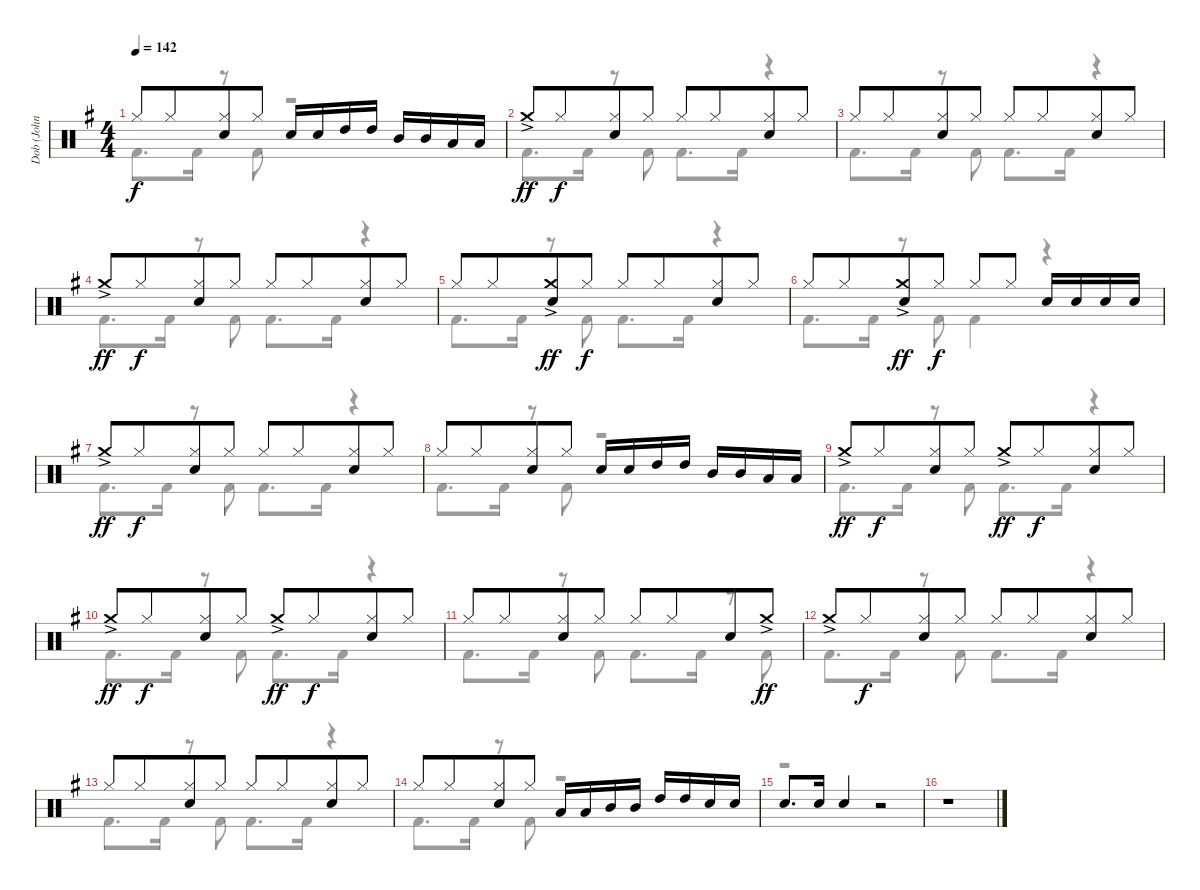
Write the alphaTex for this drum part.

\track ("Dob (John O'Reilly)" "Dob (John ") {instrument percussion}
\staff {score}
\articulation defaults
\voice
\ts (4 4)
\tempo 142
\clef neutral
\ks g "Hi-Hat (closed)".8{dy f} "Hi-Hat (closed)".8{beam merge}
("Hi-Hat (closed)" "Electric Snare (hit)").8 "Hi-Hat (closed)".8 "Electric Snare (hit)".16 "Electric Snare (hit)".16 "High Tom (hit)".16 "High Tom (hit)".16 "Mid Tom (hit)".16 "Mid Tom (hit)".16 "Low Tom (hit)".16 "Low Tom (hit)".16 |
"Crash medium (hit)"{ac}.8{dy ff} "Hi-Hat (closed)".8{dy f beam merge} ("Hi-Hat (closed)" "Electric Snare (hit)").8 "Hi-Hat (closed)".8 "Hi-Hat (closed)".8 "Hi-Hat (closed)".8{beam merge} ("Hi-Hat (closed)" "Electric Snare (hit)").8 "Hi-Hat (closed)".8 |
"Hi-Hat (closed)".8 "Hi-Hat (closed)".8{beam merge} ("Hi-Hat (closed)" "Electric Snare (hit)").8 "Hi-Hat (closed)".8 "Hi-Hat (closed)".8 "Hi-Hat (closed)".8{beam merge} ("Hi-Hat (closed)" "Electric Snare (hit)").8 "Hi-Hat (closed)".8 |
"Crash medium (hit)"{ac}.8{dy ff} "Hi-Hat (closed)".8{dy f beam merge} ("Hi-Hat (closed)" "Electric Snare (hit)").8 "Hi-Hat (closed)".8 "Hi-Hat (closed)".8 "Hi-Hat (closed)".8{beam merge} ("Hi-Hat (closed)" "Electric Snare (hit)").8 "Hi-Hat (closed)".8 |
"Hi-Hat (closed)".8 "Hi-Hat (closed)".8{beam merge} ("Crash medium (hit)"{ac} "Electric Snare (hit)").8{dy ff} "Hi-Hat (closed)".8{dy f} "Hi-Hat (closed)".8 "Hi-Hat (closed)".8{beam merge} ("Hi-Hat (closed)" "Electric Snare (hit)").8 "Hi-Hat (closed)".8 |
"Hi-Hat (closed)".8 "Hi-Hat (closed)".8{beam merge} ("Crash medium (hit)"{ac} "Electric Snare (hit)").8{dy ff} "Hi-Hat (closed)".8{dy f} "Hi-Hat (closed)".8 "Hi-Hat (closed)".8 "Electric Snare (hit)".16 "Electric Snare (hit)".16 "Electric Snare (hit)".16 "Electric Snare (hit)".16 |
"Crash medium (hit)"{ac}.8{dy ff} "Hi-Hat (closed)".8{dy f beam merge} ("Hi-Hat (closed)" "Electric Snare (hit)").8 "Hi-Hat (closed)".8 "Hi-Hat (closed)".8 "Hi-Hat (closed)".8{beam merge} ("Hi-Hat (closed)" "Electric Snare (hit)").8 "Hi-Hat (closed)".8 |
"Hi-Hat (closed)".8 "Hi-Hat (closed)".8{beam merge} ("Hi-Hat (closed)" "Electric Snare (hit)").8 "Hi-Hat (closed)".8 "Electric Snare (hit)".16 "Electric Snare (hit)".16 "High Tom (hit)".16 "High Tom (hit)".16 "Mid Tom (hit)".16 "Mid Tom (hit)".16 "Low Tom (hit)".16 "Low Tom (hit)".16 |
"Crash medium (hit)"{ac}.8{dy ff} "Hi-Hat (closed)".8{dy f beam merge} ("Hi-Hat (closed)" "Electric Snare (hit)").8 "Hi-Hat (closed)".8 "Crash medium (hit)"{ac}.8{dy ff} "Hi-Hat (closed)".8{dy f beam merge} ("Hi-Hat (closed)" "Electric Snare (hit)").8 "Hi-Hat (closed)".8 |
"Crash medium (hit)"{ac}.8{dy ff} "Hi-Hat (closed)".8{dy f beam merge} ("Hi-Hat (closed)" "Electric Snare (hit)").8 "Hi-Hat (closed)".8 "Crash medium (hit)"{ac}.8{dy ff} "Hi-Hat (closed)".8{dy f beam merge} ("Hi-Hat (closed)" "Electric Snare (hit)").8 "Hi-Hat (closed)".8 |
"Hi-Hat (closed)".8 "Hi-Hat (closed)".8{beam merge} ("Hi-Hat (closed)" "Electric Snare (hit)").8 "Hi-Hat (closed)".8 "Hi-Hat (closed)".8 "Hi-Hat (closed)".8{beam merge} "Electric Snare (hit)".8 "Crash medium (hit)"{ac}.8{dy ff} |
"Crash medium (hit)"{ac}.8 "Hi-Hat (closed)".8{dy f beam merge} ("Hi-Hat (closed)" "Electric Snare (hit)").8 "Hi-Hat (closed)".8 "Hi-Hat (closed)".8 "Hi-Hat (closed)".8{beam merge} ("Hi-Hat (closed)" "Electric Snare (hit)").8 "Hi-Hat (closed)".8 |
"Hi-Hat (closed)".8 "Hi-Hat (closed)".8{beam merge} ("Hi-Hat (closed)" "Electric Snare (hit)").8 "Hi-Hat (closed)".8 "Hi-Hat (closed)".8 "Hi-Hat (closed)".8{beam merge} ("Hi-Hat (closed)" "Electric Snare (hit)").8 "Hi-Hat (closed)".8 |
"Hi-Hat (closed)".8 "Hi-Hat (closed)".8{beam merge} ("Hi-Hat (closed)" "Electric Snare (hit)").8 "Hi-Hat (closed)".8 "Low Tom (hit)".16 "Low Tom (hit)".16 "Mid Tom (hit)".16 "Mid Tom (hit)".16 "High Tom (hit)".16 "High Tom (hit)".16 "Electric Snare (hit)".16 "Electric Snare (hit)".16 |
"Electric Snare (hit)".8{d} "Electric Snare (hit)".16 "Electric Snare (hit)".4 r.2 |
r.1
\voice
\clef neutral
\ottava regular
\simile none
\ks g "Kick (hit) 2".8{d dy f} "Kick (hit) 2".16
r.8 "Kick (hit) 2".8 r.2 |
"Kick (hit) 2".8{d} "Kick (hit) 2".16 r.8 "Kick (hit) 2".8 "Kick (hit) 2".8{d} "Kick (hit) 2".16 r.4 |
"Kick (hit) 2".8{d} "Kick (hit) 2".16 r.8 "Kick (hit) 2".8 "Kick (hit) 2".8{d} "Kick (hit) 2".16 r.4 |
"Kick (hit) 2".8{d} "Kick (hit) 2".16 r.8 "Kick (hit) 2".8 "Kick (hit) 2".8{d} "Kick (hit) 2".16 r.4 |
"Kick (hit) 2".8{d} "Kick (hit) 2".16 r.8 "Kick (hit) 2".8 "Kick (hit) 2".8{d} "Kick (hit) 2".16 r.4 |
"Kick (hit) 2".8{d} "Kick (hit) 2".16 r.8 "Kick (hit) 2".8 "Kick (hit) 2".4 r.4 |
"Kick (hit) 2".8{d} "Kick (hit) 2".16 r.8 "Kick (hit) 2".8 "Kick (hit) 2".8{d} "Kick (hit) 2".16 r.4 |
"Kick (hit) 2".8{d} "Kick (hit) 2".16 r.8 "Kick (hit) 2".8 r.2 |
"Kick (hit) 2".8{d} "Kick (hit) 2".16 r.8 "Kick (hit) 2".8 "Kick (hit) 2".8{d} "Kick (hit) 2".16 r.4 |
"Kick (hit) 2".8{d} "Kick (hit) 2".16 r.8 "Kick (hit) 2".8 "Kick (hit) 2".8{d} "Kick (hit) 2".16 r.4 |
"Kick (hit) 2".8{d} "Kick (hit) 2".16 r.8 "Kick (hit) 2".8 "Kick (hit) 2".8{d} "Kick (hit) 2".16 r.8 "Kick (hit) 2".8 |
"Kick (hit) 2".8{d} "Kick (hit) 2".16 r.8 "Kick (hit) 2".8 "Kick (hit) 2".8{d} "Kick (hit) 2".16 r.4 |
"Kick (hit) 2".8{d} "Kick (hit) 2".16 r.8 "Kick (hit) 2".8 "Kick (hit) 2".8{d} "Kick (hit) 2".16 r.4 |
"Kick (hit) 2".8{d} "Kick (hit) 2".16 r.8 "Kick (hit) 2".8 r.2 |
r.1 |
r.1
